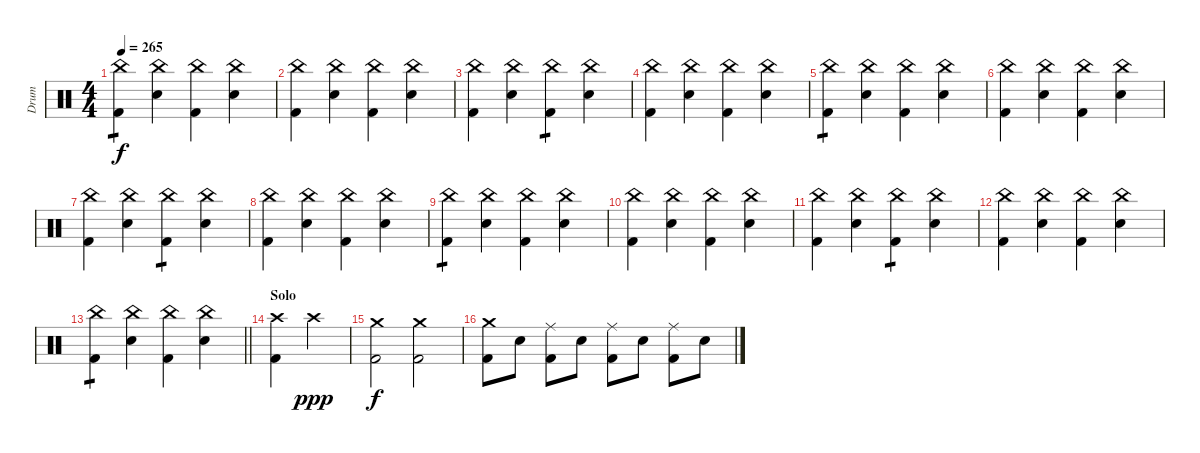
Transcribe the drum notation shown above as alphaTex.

\track ("Drum" "Drum") {instrument percussion}
\staff {score}
\articulation defaults
\ts (4 4)
\tempo 265
\clef neutral
\ks c
("China (hit)" "Kick (hit) 2").4{tp 1 dy f} ("China (hit)" "Snare (hit) 2").4 ("China (hit)" "Kick (hit) 2").4 ("China (hit)" "Snare (hit) 2").4 |
("China (hit)" "Kick (hit) 2").4 ("China (hit)" "Snare (hit) 2").4 ("China (hit)" "Kick (hit) 2").4 ("China (hit)" "Snare (hit) 2").4 |
("China (hit)" "Kick (hit) 2").4 ("China (hit)" "Snare (hit) 2").4 ("China (hit)" "Kick (hit) 2").4{tp 1} ("China (hit)" "Snare (hit) 2").4 |
("China (hit)" "Kick (hit) 2").4 ("China (hit)" "Snare (hit) 2").4 ("China (hit)" "Kick (hit) 2").4 ("China (hit)" "Snare (hit) 2").4 |
("China (hit)" "Kick (hit) 2").4{tp 1} ("China (hit)" "Snare (hit) 2").4 ("China (hit)" "Kick (hit) 2").4 ("China (hit)" "Snare (hit) 2").4 |
("China (hit)" "Kick (hit) 2").4 ("China (hit)" "Snare (hit) 2").4 ("China (hit)" "Kick (hit) 2").4 ("China (hit)" "Snare (hit) 2").4 |
("China (hit)" "Kick (hit) 2").4 ("China (hit)" "Snare (hit) 2").4 ("China (hit)" "Kick (hit) 2").4{tp 1} ("China (hit)" "Snare (hit) 2").4 |
("China (hit)" "Kick (hit) 2").4 ("China (hit)" "Snare (hit) 2").4 ("China (hit)" "Kick (hit) 2").4 ("China (hit)" "Snare (hit) 2").4 |
("China (hit)" "Kick (hit) 2").4{tp 1} ("China (hit)" "Snare (hit) 2").4 ("China (hit)" "Kick (hit) 2").4 ("China (hit)" "Snare (hit) 2").4 |
("China (hit)" "Kick (hit) 2").4 ("China (hit)" "Snare (hit) 2").4 ("China (hit)" "Kick (hit) 2").4 ("China (hit)" "Snare (hit) 2").4 |
("China (hit)" "Kick (hit) 2").4 ("China (hit)" "Snare (hit) 2").4 ("China (hit)" "Kick (hit) 2").4{tp 1} ("China (hit)" "Snare (hit) 2").4 |
("China (hit)" "Kick (hit) 2").4 ("China (hit)" "Snare (hit) 2").4 ("China (hit)" "Kick (hit) 2").4 ("China (hit)" "Snare (hit) 2").4 |
\barLineRight lightlight
("China (hit)" "Kick (hit) 2").4{tp 1} ("China (hit)" "Snare (hit) 2").4 ("China (hit)" "Kick (hit) 2").4 ("China (hit)" "Snare (hit) 2").4 |
\section ("" "Solo")
("Crash high (hit)" "Kick (hit) 2").4 "Crash high (hit)".4{dy ppp} |
("Crash medium (hit)" "Kick (hit) 2").2{dy f} ("Crash medium (hit)" "Kick (hit) 2").2 |
("Crash medium (hit)" "Kick (hit) 2").8 "Snare (hit) 2".8 ("Ride (middle)" "Kick (hit) 2").8 "Snare (hit) 2".8 ("Ride (middle)" "Kick (hit) 2").8 "Snare (hit) 2".8 ("Ride (middle)" "Kick (hit) 2").8 "Snare (hit) 2".8
